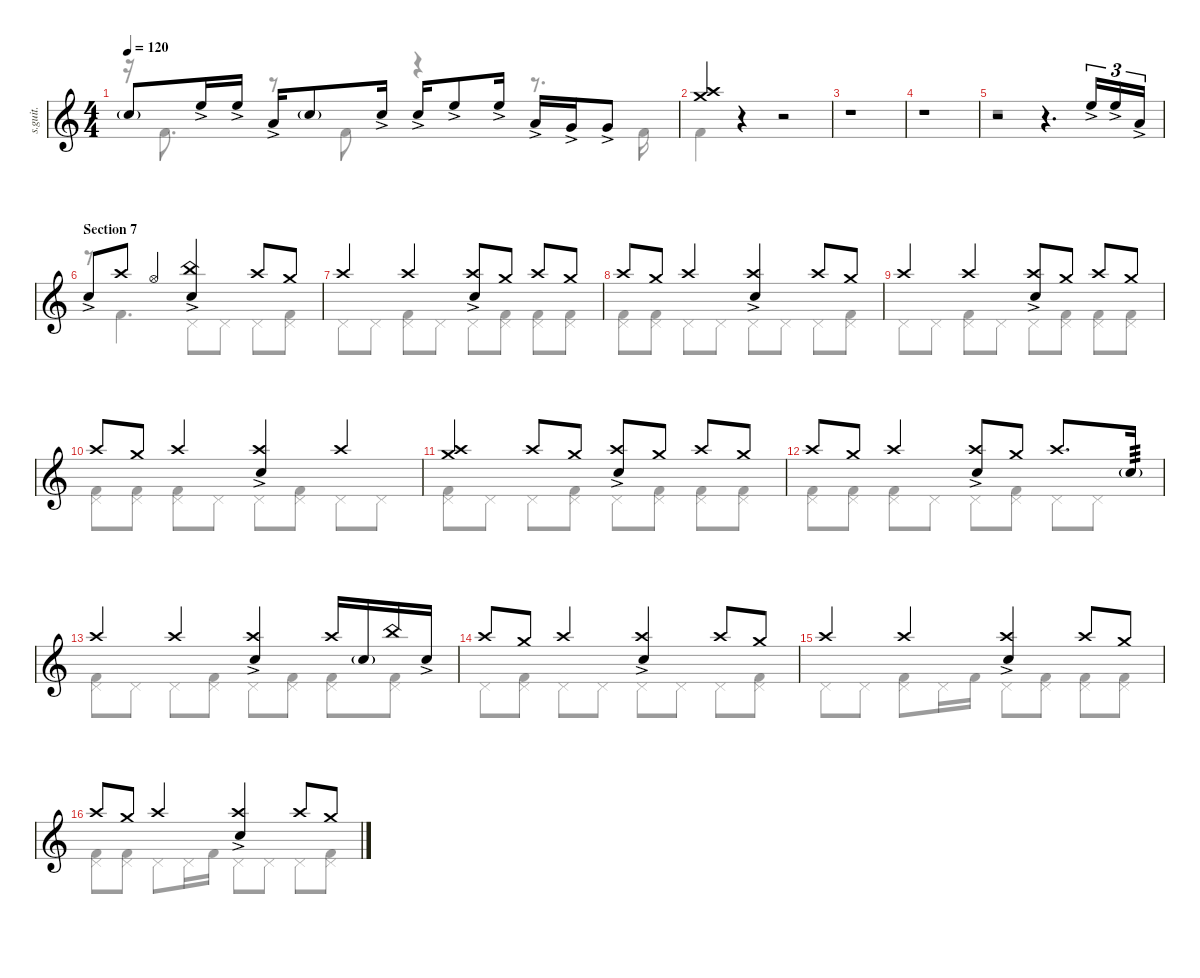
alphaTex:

\defaultSystemsLayout 4
\hideDynamics
\bracketExtendMode nobrackets
\track ("Matt Halpern" "s.guit.") {instrument percussion}
\staff {score}
\articulation defaults
\voice
\ts (4 4)
\tempo 120
\clef g2
\ks c "Snare (hit) 2"{g}.8{lyrics (0 "") lyrics (1 "") lyrics (2 "") lyrics (3 "") lyrics (4 "") dy mf} "High Floor Tom (hit)"{ac}.16{lyrics (0 "") lyrics (1 "") lyrics (2 "") lyrics (3 "") lyrics (4 "")} "High Floor Tom (hit)"{ac}.16{lyrics (0 "") lyrics (1 "") lyrics (2 "") lyrics (3 "") lyrics (4 "")} "Low Tom (hit)"{ac}.16{lyrics (0 "") lyrics (1 "") lyrics (2 "") lyrics (3 "") lyrics (4 "")} "Snare (hit) 2"{g}.8{lyrics (0 "") lyrics (1 "") lyrics (2 "") lyrics (3 "") lyrics (4 "")} "Snare (hit) 2"{ac}.16{lyrics (0 "") lyrics (1 "") lyrics (2 "") lyrics (3 "") lyrics (4 "")} "Snare (hit) 2"{ac}.16{lyrics (0 "") lyrics (1 "") lyrics (2 "") lyrics (3 "") lyrics (4 "")} "High Floor Tom (hit)"{ac}.8{lyrics (0 "") lyrics (1 "") lyrics (2 "") lyrics (3 "") lyrics (4 "")} "High Floor Tom (hit)"{ac}.16{lyrics (0 "") lyrics (1 "") lyrics (2 "") lyrics (3 "") lyrics (4 "")} "Low Tom (hit)"{ac}.16{lyrics (0 "") lyrics (1 "") lyrics (2 "") lyrics (3 "") lyrics (4 "")} "Very Low Tom (hit)"{ac}.16{lyrics (0 "") lyrics (1 "") lyrics (2 "") lyrics (3 "") lyrics (4 "")} "Very Low Tom (hit)"{ac}.8{lyrics (0 "") lyrics (1 "") lyrics (2 "") lyrics (3 "") lyrics (4 "")}
|
("Crash high (hit)" "Crash medium (hit)").4{lyrics (0 "") lyrics (1 "") lyrics (2 "") lyrics (3 "") lyrics (4 "")} r.4 r.2 |
r.1 |
r.1 |
r.2 r.4{d} "High Floor Tom (hit)"{ac}.16{tu (3 2) lyrics (0 "") lyrics (1 "") lyrics (2 "") lyrics (3 "") lyrics (4 "") dy f} "High Floor Tom (hit)"{ac}.16{tu (3 2) lyrics (0 "") lyrics (1 "") lyrics (2 "") lyrics (3 "") lyrics (4 "")} "Low Tom (hit)"{ac}.16{tu (3 2) lyrics (0 "") lyrics (1 "") lyrics (2 "") lyrics (3 "") lyrics (4 "")} |
\section ("" "Section 7")
"Snare (hit) 2"{ac}.8{lyrics (0 "") lyrics (1 "") lyrics (2 "") lyrics (3 "") lyrics (4 "")} "Crash high (hit)".8{lyrics (0 "") lyrics (1 "") lyrics (2 "") lyrics (3 "") lyrics (4 "")} "Hi-Hat (open)".4{lyrics (0 "") lyrics (1 "") lyrics (2 "") lyrics (3 "") lyrics (4 "")} ("China (hit)" "Snare (hit) 2"{ac}).4{lyrics (0 "") lyrics (1 "") lyrics (2 "") lyrics (3 "") lyrics (4 "")} "Crash high (hit)".8{lyrics (0 "") lyrics (1 "") lyrics (2 "") lyrics (3 "") lyrics (4 "")} "Crash medium (hit)".8{lyrics (0 "") lyrics (1 "") lyrics (2 "") lyrics (3 "") lyrics (4 "")} |
"Crash high (hit)".4{lyrics (0 "") lyrics (1 "") lyrics (2 "") lyrics (3 "") lyrics (4 "")} "Crash high (hit)".4{lyrics (0 "") lyrics (1 "") lyrics (2 "") lyrics (3 "") lyrics (4 "")} ("Crash high (hit)" "Snare (hit) 2"{ac}).8{lyrics (0 "") lyrics (1 "") lyrics (2 "") lyrics (3 "") lyrics (4 "")} "Crash medium (hit)".8{lyrics (0 "") lyrics (1 "") lyrics (2 "") lyrics (3 "") lyrics (4 "")} "Crash high (hit)".8{lyrics (0 "") lyrics (1 "") lyrics (2 "") lyrics (3 "") lyrics (4 "")} "Crash medium (hit)".8{lyrics (0 "") lyrics (1 "") lyrics (2 "") lyrics (3 "") lyrics (4 "")} |
"Crash high (hit)".8{lyrics (0 "") lyrics (1 "") lyrics (2 "") lyrics (3 "") lyrics (4 "")} "Crash medium (hit)".8{lyrics (0 "") lyrics (1 "") lyrics (2 "") lyrics (3 "") lyrics (4 "")} "Crash high (hit)".4{lyrics (0 "") lyrics (1 "") lyrics (2 "") lyrics (3 "") lyrics (4 "")} ("Crash high (hit)" "Snare (hit) 2"{ac}).4{lyrics (0 "") lyrics (1 "") lyrics (2 "") lyrics (3 "") lyrics (4 "")} "Crash high (hit)".8{lyrics (0 "") lyrics (1 "") lyrics (2 "") lyrics (3 "") lyrics (4 "")} "Crash medium (hit)".8{lyrics (0 "") lyrics (1 "") lyrics (2 "") lyrics (3 "") lyrics (4 "")} |
"Crash high (hit)".4{lyrics (0 "") lyrics (1 "") lyrics (2 "") lyrics (3 "") lyrics (4 "")} "Crash high (hit)".4{lyrics (0 "") lyrics (1 "") lyrics (2 "") lyrics (3 "") lyrics (4 "")} ("Crash high (hit)" "Snare (hit) 2"{ac}).8{lyrics (0 "") lyrics (1 "") lyrics (2 "") lyrics (3 "") lyrics (4 "")} "Crash medium (hit)".8{lyrics (0 "") lyrics (1 "") lyrics (2 "") lyrics (3 "") lyrics (4 "")} "Crash high (hit)".8{lyrics (0 "") lyrics (1 "") lyrics (2 "") lyrics (3 "") lyrics (4 "")} "Crash medium (hit)".8{lyrics (0 "") lyrics (1 "") lyrics (2 "") lyrics (3 "") lyrics (4 "")} |
"Crash high (hit)".8{lyrics (0 "") lyrics (1 "") lyrics (2 "") lyrics (3 "") lyrics (4 "")} "Crash medium (hit)".8{lyrics (0 "") lyrics (1 "") lyrics (2 "") lyrics (3 "") lyrics (4 "")} "Crash high (hit)".4{lyrics (0 "") lyrics (1 "") lyrics (2 "") lyrics (3 "") lyrics (4 "")} ("Crash high (hit)" "Snare (hit) 2"{ac}).4{lyrics (0 "") lyrics (1 "") lyrics (2 "") lyrics (3 "") lyrics (4 "")} "Crash high (hit)".4{lyrics (0 "") lyrics (1 "") lyrics (2 "") lyrics (3 "") lyrics (4 "")} |
("Crash high (hit)" "Crash medium (hit)").4{lyrics (0 "") lyrics (1 "") lyrics (2 "") lyrics (3 "") lyrics (4 "")} "Crash high (hit)".8{lyrics (0 "") lyrics (1 "") lyrics (2 "") lyrics (3 "") lyrics (4 "")} "Crash medium (hit)".8{lyrics (0 "") lyrics (1 "") lyrics (2 "") lyrics (3 "") lyrics (4 "")} ("Crash high (hit)" "Snare (hit) 2"{ac}).8{lyrics (0 "") lyrics (1 "") lyrics (2 "") lyrics (3 "") lyrics (4 "")} "Crash medium (hit)".8{lyrics (0 "") lyrics (1 "") lyrics (2 "") lyrics (3 "") lyrics (4 "")} "Crash high (hit)".8{lyrics (0 "") lyrics (1 "") lyrics (2 "") lyrics (3 "") lyrics (4 "")} "Crash medium (hit)".8{lyrics (0 "") lyrics (1 "") lyrics (2 "") lyrics (3 "") lyrics (4 "")} |
"Crash high (hit)".8{lyrics (0 "") lyrics (1 "") lyrics (2 "") lyrics (3 "") lyrics (4 "")} "Crash medium (hit)".8{lyrics (0 "") lyrics (1 "") lyrics (2 "") lyrics (3 "") lyrics (4 "")} "Crash high (hit)".4{lyrics (0 "") lyrics (1 "") lyrics (2 "") lyrics (3 "") lyrics (4 "")} ("Crash high (hit)" "Snare (hit) 2"{ac}).8{lyrics (0 "") lyrics (1 "") lyrics (2 "") lyrics (3 "") lyrics (4 "")} "Crash medium (hit)".8{lyrics (0 "") lyrics (1 "") lyrics (2 "") lyrics (3 "") lyrics (4 "")} "Crash high (hit)".8{d lyrics (0 "") lyrics (1 "") lyrics (2 "") lyrics (3 "") lyrics (4 "")} "Snare (hit) 2"{g}.16{lyrics (0 "") lyrics (1 "") lyrics (2 "") lyrics (3 "") lyrics (4 "") tp 3} |
"Crash high (hit)".4{lyrics (0 "") lyrics (1 "") lyrics (2 "") lyrics (3 "") lyrics (4 "")} "Crash high (hit)".4{lyrics (0 "") lyrics (1 "") lyrics (2 "") lyrics (3 "") lyrics (4 "")} ("Crash high (hit)" "Snare (hit) 2"{ac}).4{lyrics (0 "") lyrics (1 "") lyrics (2 "") lyrics (3 "") lyrics (4 "")} "Crash high (hit)".16{lyrics (0 "") lyrics (1 "") lyrics (2 "") lyrics (3 "") lyrics (4 "")} "Snare (hit) 2"{g}.16{lyrics (0 "") lyrics (1 "") lyrics (2 "") lyrics (3 "") lyrics (4 "")} "China (hit)".16{lyrics (0 "") lyrics (1 "") lyrics (2 "") lyrics (3 "") lyrics (4 "")} "Snare (hit) 2"{ac}.16{lyrics (0 "") lyrics (1 "") lyrics (2 "") lyrics (3 "") lyrics (4 "")} |
"Crash high (hit)".8{lyrics (0 "") lyrics (1 "") lyrics (2 "") lyrics (3 "") lyrics (4 "")} "Crash medium (hit)".8{lyrics (0 "") lyrics (1 "") lyrics (2 "") lyrics (3 "") lyrics (4 "")} "Crash high (hit)".4{lyrics (0 "") lyrics (1 "") lyrics (2 "") lyrics (3 "") lyrics (4 "")} ("Crash high (hit)" "Snare (hit) 2"{ac}).4{lyrics (0 "") lyrics (1 "") lyrics (2 "") lyrics (3 "") lyrics (4 "")} "Crash high (hit)".8{lyrics (0 "") lyrics (1 "") lyrics (2 "") lyrics (3 "") lyrics (4 "")} "Crash medium (hit)".8{lyrics (0 "") lyrics (1 "") lyrics (2 "") lyrics (3 "") lyrics (4 "")} |
"Crash high (hit)".4{lyrics (0 "") lyrics (1 "") lyrics (2 "") lyrics (3 "") lyrics (4 "")} "Crash high (hit)".4{lyrics (0 "") lyrics (1 "") lyrics (2 "") lyrics (3 "") lyrics (4 "")} ("Crash high (hit)" "Snare (hit) 2"{ac}).4{lyrics (0 "") lyrics (1 "") lyrics (2 "") lyrics (3 "") lyrics (4 "")} "Crash high (hit)".8{lyrics (0 "") lyrics (1 "") lyrics (2 "") lyrics (3 "") lyrics (4 "")} "Crash medium (hit)".8{lyrics (0 "") lyrics (1 "") lyrics (2 "") lyrics (3 "") lyrics (4 "")} |
"Crash high (hit)".8{lyrics (0 "") lyrics (1 "") lyrics (2 "") lyrics (3 "") lyrics (4 "")} "Crash medium (hit)".8{lyrics (0 "") lyrics (1 "") lyrics (2 "") lyrics (3 "") lyrics (4 "")} "Crash high (hit)".4{lyrics (0 "") lyrics (1 "") lyrics (2 "") lyrics (3 "") lyrics (4 "")} ("Crash high (hit)" "Snare (hit) 2"{ac}).4{lyrics (0 "") lyrics (1 "") lyrics (2 "") lyrics (3 "") lyrics (4 "")} "Crash high (hit)".8{lyrics (0 "") lyrics (1 "") lyrics (2 "") lyrics (3 "") lyrics (4 "")} "Crash medium (hit)".8{lyrics (0 "") lyrics (1 "") lyrics (2 "") lyrics (3 "") lyrics (4 "")}
\voice
\clef g2
\ottava regular
\simile none
\ks c
r.16{dy mf} "Kick (hit) 2".8{d lyrics (0 "") lyrics (1 "") lyrics (2 "") lyrics (3 "") lyrics (4 "")} r.8 "Kick (hit) 2".8{lyrics (0 "") lyrics (1 "") lyrics (2 "") lyrics (3 "") lyrics (4 "")} r.4 r.8{d} "Kick (hit) 2".16{lyrics (0 "") lyrics (1 "") lyrics (2 "") lyrics (3 "") lyrics (4 "")} |
"Kick (hit) 2".4{lyrics (0 "") lyrics (1 "") lyrics (2 "") lyrics (3 "") lyrics (4 "")} r.4 r.2 |
r.1 |
r.1 |
r.1 |
r.8 "Kick (hit) 2".4{d lyrics (0 "") lyrics (1 "") lyrics (2 "") lyrics (3 "") lyrics (4 "") dy f} "Pedal Hi-Hat (hit)".8{lyrics (0 "") lyrics (1 "") lyrics (2 "") lyrics (3 "") lyrics (4 "")} "Pedal Hi-Hat (hit)".8{lyrics (0 "") lyrics (1 "") lyrics (2 "") lyrics (3 "") lyrics (4 "")} "Pedal Hi-Hat (hit)".8{lyrics (0 "") lyrics (1 "") lyrics (2 "") lyrics (3 "") lyrics (4 "")} ("Pedal Hi-Hat (hit)" "Kick (hit) 2").8{lyrics (0 "") lyrics (1 "") lyrics (2 "") lyrics (3 "") lyrics (4 "")} |
"Pedal Hi-Hat (hit)".8{lyrics (0 "") lyrics (1 "") lyrics (2 "") lyrics (3 "") lyrics (4 "")} "Pedal Hi-Hat (hit)".8{lyrics (0 "") lyrics (1 "") lyrics (2 "") lyrics (3 "") lyrics (4 "")} ("Pedal Hi-Hat (hit)" "Kick (hit) 2").8{lyrics (0 "") lyrics (1 "") lyrics (2 "") lyrics (3 "") lyrics (4 "")} "Pedal Hi-Hat (hit)".8{lyrics (0 "") lyrics (1 "") lyrics (2 "") lyrics (3 "") lyrics (4 "")} "Pedal Hi-Hat (hit)".8{lyrics (0 "") lyrics (1 "") lyrics (2 "") lyrics (3 "") lyrics (4 "")} ("Pedal Hi-Hat (hit)" "Kick (hit) 2").8{lyrics (0 "") lyrics (1 "") lyrics (2 "") lyrics (3 "") lyrics (4 "")} ("Pedal Hi-Hat (hit)" "Kick (hit) 2").8{lyrics (0 "") lyrics (1 "") lyrics (2 "") lyrics (3 "") lyrics (4 "")} ("Pedal Hi-Hat (hit)" "Kick (hit) 2").8{lyrics (0 "") lyrics (1 "") lyrics (2 "") lyrics (3 "") lyrics (4 "")} |
("Pedal Hi-Hat (hit)" "Kick (hit) 2").8{lyrics (0 "") lyrics (1 "") lyrics (2 "") lyrics (3 "") lyrics (4 "")} ("Pedal Hi-Hat (hit)" "Kick (hit) 2").8{lyrics (0 "") lyrics (1 "") lyrics (2 "") lyrics (3 "") lyrics (4 "")} "Pedal Hi-Hat (hit)".8{lyrics (0 "") lyrics (1 "") lyrics (2 "") lyrics (3 "") lyrics (4 "")} "Pedal Hi-Hat (hit)".8{lyrics (0 "") lyrics (1 "") lyrics (2 "") lyrics (3 "") lyrics (4 "")} "Pedal Hi-Hat (hit)".8{lyrics (0 "") lyrics (1 "") lyrics (2 "") lyrics (3 "") lyrics (4 "")} "Pedal Hi-Hat (hit)".8{lyrics (0 "") lyrics (1 "") lyrics (2 "") lyrics (3 "") lyrics (4 "")} "Pedal Hi-Hat (hit)".8{lyrics (0 "") lyrics (1 "") lyrics (2 "") lyrics (3 "") lyrics (4 "")} ("Pedal Hi-Hat (hit)" "Kick (hit) 2").8{lyrics (0 "") lyrics (1 "") lyrics (2 "") lyrics (3 "") lyrics (4 "")} |
"Pedal Hi-Hat (hit)".8{lyrics (0 "") lyrics (1 "") lyrics (2 "") lyrics (3 "") lyrics (4 "")} "Pedal Hi-Hat (hit)".8{lyrics (0 "") lyrics (1 "") lyrics (2 "") lyrics (3 "") lyrics (4 "")} ("Pedal Hi-Hat (hit)" "Kick (hit) 2").8{lyrics (0 "") lyrics (1 "") lyrics (2 "") lyrics (3 "") lyrics (4 "")} "Pedal Hi-Hat (hit)".8{lyrics (0 "") lyrics (1 "") lyrics (2 "") lyrics (3 "") lyrics (4 "")} "Pedal Hi-Hat (hit)".8{lyrics (0 "") lyrics (1 "") lyrics (2 "") lyrics (3 "") lyrics (4 "")} ("Pedal Hi-Hat (hit)" "Kick (hit) 2").8{lyrics (0 "") lyrics (1 "") lyrics (2 "") lyrics (3 "") lyrics (4 "")} ("Pedal Hi-Hat (hit)" "Kick (hit) 2").8{lyrics (0 "") lyrics (1 "") lyrics (2 "") lyrics (3 "") lyrics (4 "")} ("Pedal Hi-Hat (hit)" "Kick (hit) 2").8{lyrics (0 "") lyrics (1 "") lyrics (2 "") lyrics (3 "") lyrics (4 "")} |
("Pedal Hi-Hat (hit)" "Kick (hit) 2").8{lyrics (0 "") lyrics (1 "") lyrics (2 "") lyrics (3 "") lyrics (4 "")} ("Pedal Hi-Hat (hit)" "Kick (hit) 2").8{lyrics (0 "") lyrics (1 "") lyrics (2 "") lyrics (3 "") lyrics (4 "")} ("Pedal Hi-Hat (hit)" "Kick (hit) 2").8{lyrics (0 "") lyrics (1 "") lyrics (2 "") lyrics (3 "") lyrics (4 "")} "Pedal Hi-Hat (hit)".8{lyrics (0 "") lyrics (1 "") lyrics (2 "") lyrics (3 "") lyrics (4 "")} "Pedal Hi-Hat (hit)".8{lyrics (0 "") lyrics (1 "") lyrics (2 "") lyrics (3 "") lyrics (4 "")} ("Pedal Hi-Hat (hit)" "Kick (hit) 2").8{lyrics (0 "") lyrics (1 "") lyrics (2 "") lyrics (3 "") lyrics (4 "")} "Pedal Hi-Hat (hit)".8{lyrics (0 "") lyrics (1 "") lyrics (2 "") lyrics (3 "") lyrics (4 "")} "Pedal Hi-Hat (hit)".8{lyrics (0 "") lyrics (1 "") lyrics (2 "") lyrics (3 "") lyrics (4 "")} |
("Pedal Hi-Hat (hit)" "Kick (hit) 2").8{lyrics (0 "") lyrics (1 "") lyrics (2 "") lyrics (3 "") lyrics (4 "")} "Pedal Hi-Hat (hit)".8{lyrics (0 "") lyrics (1 "") lyrics (2 "") lyrics (3 "") lyrics (4 "")} "Pedal Hi-Hat (hit)".8{lyrics (0 "") lyrics (1 "") lyrics (2 "") lyrics (3 "") lyrics (4 "")} ("Pedal Hi-Hat (hit)" "Kick (hit) 2").8{lyrics (0 "") lyrics (1 "") lyrics (2 "") lyrics (3 "") lyrics (4 "")} "Pedal Hi-Hat (hit)".8{lyrics (0 "") lyrics (1 "") lyrics (2 "") lyrics (3 "") lyrics (4 "")} ("Pedal Hi-Hat (hit)" "Kick (hit) 2").8{lyrics (0 "") lyrics (1 "") lyrics (2 "") lyrics (3 "") lyrics (4 "")} ("Pedal Hi-Hat (hit)" "Kick (hit) 2").8{lyrics (0 "") lyrics (1 "") lyrics (2 "") lyrics (3 "") lyrics (4 "")} ("Pedal Hi-Hat (hit)" "Kick (hit) 2").8{lyrics (0 "") lyrics (1 "") lyrics (2 "") lyrics (3 "") lyrics (4 "")} |
("Pedal Hi-Hat (hit)" "Kick (hit) 2").8{lyrics (0 "") lyrics (1 "") lyrics (2 "") lyrics (3 "") lyrics (4 "")} ("Pedal Hi-Hat (hit)" "Kick (hit) 2").8{lyrics (0 "") lyrics (1 "") lyrics (2 "") lyrics (3 "") lyrics (4 "")} ("Pedal Hi-Hat (hit)" "Kick (hit) 2").8{lyrics (0 "") lyrics (1 "") lyrics (2 "") lyrics (3 "") lyrics (4 "")} "Pedal Hi-Hat (hit)".8{lyrics (0 "") lyrics (1 "") lyrics (2 "") lyrics (3 "") lyrics (4 "")} "Pedal Hi-Hat (hit)".8{lyrics (0 "") lyrics (1 "") lyrics (2 "") lyrics (3 "") lyrics (4 "")} ("Pedal Hi-Hat (hit)" "Kick (hit) 2").8{lyrics (0 "") lyrics (1 "") lyrics (2 "") lyrics (3 "") lyrics (4 "")} "Pedal Hi-Hat (hit)".8{lyrics (0 "") lyrics (1 "") lyrics (2 "") lyrics (3 "") lyrics (4 "")} "Pedal Hi-Hat (hit)".8{lyrics (0 "") lyrics (1 "") lyrics (2 "") lyrics (3 "") lyrics (4 "")} |
("Pedal Hi-Hat (hit)" "Kick (hit) 2").8{lyrics (0 "") lyrics (1 "") lyrics (2 "") lyrics (3 "") lyrics (4 "")} "Pedal Hi-Hat (hit)".8{lyrics (0 "") lyrics (1 "") lyrics (2 "") lyrics (3 "") lyrics (4 "")} "Pedal Hi-Hat (hit)".8{lyrics (0 "") lyrics (1 "") lyrics (2 "") lyrics (3 "") lyrics (4 "")} ("Pedal Hi-Hat (hit)" "Kick (hit) 2").8{lyrics (0 "") lyrics (1 "") lyrics (2 "") lyrics (3 "") lyrics (4 "")} "Pedal Hi-Hat (hit)".8{lyrics (0 "") lyrics (1 "") lyrics (2 "") lyrics (3 "") lyrics (4 "")} ("Pedal Hi-Hat (hit)" "Kick (hit) 2").8{lyrics (0 "") lyrics (1 "") lyrics (2 "") lyrics (3 "") lyrics (4 "")} ("Pedal Hi-Hat (hit)" "Kick (hit) 2").8{lyrics (0 "") lyrics (1 "") lyrics (2 "") lyrics (3 "") lyrics (4 "")} ("Pedal Hi-Hat (hit)" "Kick (hit) 2").8{lyrics (0 "") lyrics (1 "") lyrics (2 "") lyrics (3 "") lyrics (4 "")} |
"Pedal Hi-Hat (hit)".8{lyrics (0 "") lyrics (1 "") lyrics (2 "") lyrics (3 "") lyrics (4 "")} ("Pedal Hi-Hat (hit)" "Kick (hit) 2").8{lyrics (0 "") lyrics (1 "") lyrics (2 "") lyrics (3 "") lyrics (4 "")} "Pedal Hi-Hat (hit)".8{lyrics (0 "") lyrics (1 "") lyrics (2 "") lyrics (3 "") lyrics (4 "")} "Pedal Hi-Hat (hit)".8{lyrics (0 "") lyrics (1 "") lyrics (2 "") lyrics (3 "") lyrics (4 "")} "Pedal Hi-Hat (hit)".8{lyrics (0 "") lyrics (1 "") lyrics (2 "") lyrics (3 "") lyrics (4 "")} "Pedal Hi-Hat (hit)".8{lyrics (0 "") lyrics (1 "") lyrics (2 "") lyrics (3 "") lyrics (4 "")} "Pedal Hi-Hat (hit)".8{lyrics (0 "") lyrics (1 "") lyrics (2 "") lyrics (3 "") lyrics (4 "")} ("Pedal Hi-Hat (hit)" "Kick (hit) 2").8{lyrics (0 "") lyrics (1 "") lyrics (2 "") lyrics (3 "") lyrics (4 "")} |
"Pedal Hi-Hat (hit)".8{lyrics (0 "") lyrics (1 "") lyrics (2 "") lyrics (3 "") lyrics (4 "")} "Pedal Hi-Hat (hit)".8{lyrics (0 "") lyrics (1 "") lyrics (2 "") lyrics (3 "") lyrics (4 "")} ("Pedal Hi-Hat (hit)" "Kick (hit) 2").8{lyrics (0 "") lyrics (1 "") lyrics (2 "") lyrics (3 "") lyrics (4 "")} "Pedal Hi-Hat (hit)".16{lyrics (0 "") lyrics (1 "") lyrics (2 "") lyrics (3 "") lyrics (4 "")} "Kick (hit) 2".16{lyrics (0 "") lyrics (1 "") lyrics (2 "") lyrics (3 "") lyrics (4 "")} "Pedal Hi-Hat (hit)".8{lyrics (0 "") lyrics (1 "") lyrics (2 "") lyrics (3 "") lyrics (4 "")} ("Pedal Hi-Hat (hit)" "Kick (hit) 2").8{lyrics (0 "") lyrics (1 "") lyrics (2 "") lyrics (3 "") lyrics (4 "")} ("Pedal Hi-Hat (hit)" "Kick (hit) 2").8{lyrics (0 "") lyrics (1 "") lyrics (2 "") lyrics (3 "") lyrics (4 "")} ("Pedal Hi-Hat (hit)" "Kick (hit) 2").8{lyrics (0 "") lyrics (1 "") lyrics (2 "") lyrics (3 "") lyrics (4 "")} |
("Pedal Hi-Hat (hit)" "Kick (hit) 2").8{lyrics (0 "") lyrics (1 "") lyrics (2 "") lyrics (3 "") lyrics (4 "")} ("Pedal Hi-Hat (hit)" "Kick (hit) 2").8{lyrics (0 "") lyrics (1 "") lyrics (2 "") lyrics (3 "") lyrics (4 "")} "Pedal Hi-Hat (hit)".8{lyrics (0 "") lyrics (1 "") lyrics (2 "") lyrics (3 "") lyrics (4 "")} "Pedal Hi-Hat (hit)".16{lyrics (0 "") lyrics (1 "") lyrics (2 "") lyrics (3 "") lyrics (4 "")} "Kick (hit) 2".16{lyrics (0 "") lyrics (1 "") lyrics (2 "") lyrics (3 "") lyrics (4 "")} "Pedal Hi-Hat (hit)".8{lyrics (0 "") lyrics (1 "") lyrics (2 "") lyrics (3 "") lyrics (4 "")} "Pedal Hi-Hat (hit)".8{lyrics (0 "") lyrics (1 "") lyrics (2 "") lyrics (3 "") lyrics (4 "")} "Pedal Hi-Hat (hit)".8{lyrics (0 "") lyrics (1 "") lyrics (2 "") lyrics (3 "") lyrics (4 "")} ("Pedal Hi-Hat (hit)" "Kick (hit) 2").8{lyrics (0 "") lyrics (1 "") lyrics (2 "") lyrics (3 "") lyrics (4 "")}
